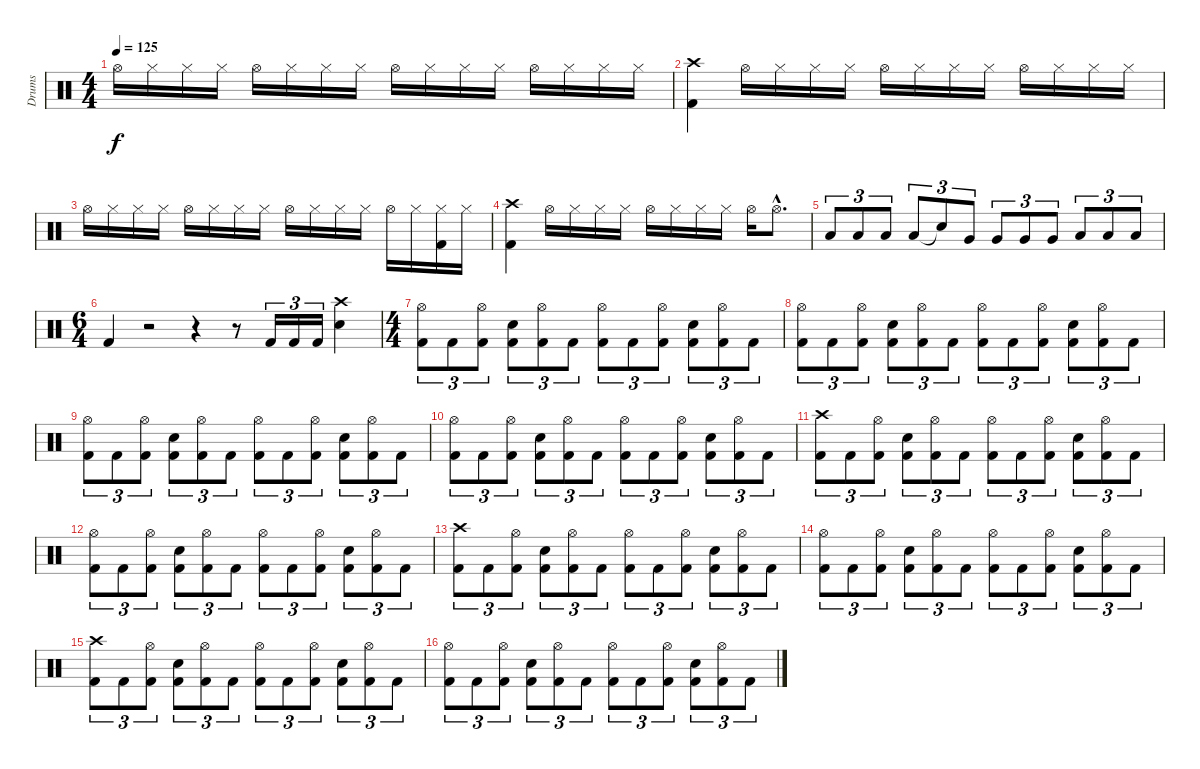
\track ("Drums" "Drums") {instrument percussion}
\staff {score}
\articulation defaults
\ts (4 4)
\tempo 125
\clef neutral
\ks c "Hi-Hat (open)".16{dy f} "Hi-Hat (closed)".16 "Hi-Hat (closed)".16 "Hi-Hat (closed)".16 "Hi-Hat (open)".16 "Hi-Hat (closed)".16 "Hi-Hat (closed)".16 "Hi-Hat (closed)".16 "Hi-Hat (open)".16 "Hi-Hat (closed)".16 "Hi-Hat (closed)".16 "Hi-Hat (closed)".16 "Hi-Hat (open)".16 "Hi-Hat (closed)".16 "Hi-Hat (closed)".16 "Hi-Hat (closed)".16
|
("Crash high (hit)" "Kick (hit) 2").4 "Hi-Hat (open)".16 "Hi-Hat (closed)".16 "Hi-Hat (closed)".16 "Hi-Hat (closed)".16 "Hi-Hat (open)".16 "Hi-Hat (closed)".16 "Hi-Hat (closed)".16 "Hi-Hat (closed)".16 "Hi-Hat (open)".16 "Hi-Hat (closed)".16 "Hi-Hat (closed)".16 "Hi-Hat (closed)".16 |
"Hi-Hat (open)".16 "Hi-Hat (closed)".16 "Hi-Hat (closed)".16 "Hi-Hat (closed)".16 "Hi-Hat (open)".16 "Hi-Hat (closed)".16 "Hi-Hat (closed)".16 "Hi-Hat (closed)".16 "Hi-Hat (open)".16 "Hi-Hat (closed)".16 "Hi-Hat (closed)".16 "Hi-Hat (closed)".16 "Hi-Hat (open)".16 "Hi-Hat (closed)".16 ("Hi-Hat (closed)" "Kick (hit) 2").16 "Hi-Hat (closed)".16 |
("Crash high (hit)" "Kick (hit) 2").4 "Hi-Hat (open)".16 "Hi-Hat (closed)".16 "Hi-Hat (closed)".16 "Hi-Hat (closed)".16 "Hi-Hat (open)".16 "Hi-Hat (closed)".16 "Hi-Hat (closed)".16 "Hi-Hat (closed)".16 "Hi-Hat (open)".16 "Hi-Hat (open)"{hac}.8{d} |
"Low Tom (hit)".8{tu (3 2)} "Low Tom (hit)".8{tu (3 2)} "Low Tom (hit)".8{tu (3 2)} "Low Tom (hit)".8{tu (3 2)} "Snare (hit)"{t}.8{tu (3 2)} "Very Low Tom (hit)".8{tu (3 2)} "Very Low Tom (hit)".8{tu (3 2)} "Very Low Tom (hit)".8{tu (3 2)} "Very Low Tom (hit)".8{tu (3 2)} "Low Floor Tom (hit)".8{tu (3 2)} "Low Floor Tom (hit)".8{tu (3 2)} "Low Floor Tom (hit)".8{tu (3 2)} |
\ts (6 4)
"Kick (hit) 2".4 r.2 r.4 r.8 "Kick (hit) 2".16{tu (3 2)} "Kick (hit) 2".16{tu (3 2)} "Kick (hit) 2".16{tu (3 2)} ("Crash high (hit)" "Snare (hit) 2").4 |
\ts (4 4)
("Hi-Hat (open)" "Kick (hit) 2").8{tu (3 2)} "Kick (hit) 2".8{tu (3 2)} ("Hi-Hat (open)" "Kick (hit) 2").8{tu (3 2)} ("Snare (hit) 2" "Kick (hit) 2").8{tu (3 2)} ("Hi-Hat (open)" "Kick (hit) 2").8{tu (3 2)} "Kick (hit) 2".8{tu (3 2)} ("Hi-Hat (open)" "Kick (hit) 2").8{tu (3 2)} "Kick (hit) 2".8{tu (3 2)} ("Hi-Hat (open)" "Kick (hit) 2").8{tu (3 2)} ("Snare (hit) 2" "Kick (hit) 2").8{tu (3 2)} ("Hi-Hat (open)" "Kick (hit) 2").8{tu (3 2)} "Kick (hit) 2".8{tu (3 2)} |
("Hi-Hat (open)" "Kick (hit) 2").8{tu (3 2)} "Kick (hit) 2".8{tu (3 2)} ("Hi-Hat (open)" "Kick (hit) 2").8{tu (3 2)} ("Snare (hit) 2" "Kick (hit) 2").8{tu (3 2)} ("Hi-Hat (open)" "Kick (hit) 2").8{tu (3 2)} "Kick (hit) 2".8{tu (3 2)} ("Hi-Hat (open)" "Kick (hit) 2").8{tu (3 2)} "Kick (hit) 2".8{tu (3 2)} ("Hi-Hat (open)" "Kick (hit) 2").8{tu (3 2)} ("Snare (hit) 2" "Kick (hit) 2").8{tu (3 2)} ("Hi-Hat (open)" "Kick (hit) 2").8{tu (3 2)} "Kick (hit) 2".8{tu (3 2)} |
("Hi-Hat (open)" "Kick (hit) 2").8{tu (3 2)} "Kick (hit) 2".8{tu (3 2)} ("Hi-Hat (open)" "Kick (hit) 2").8{tu (3 2)} ("Snare (hit) 2" "Kick (hit) 2").8{tu (3 2)} ("Hi-Hat (open)" "Kick (hit) 2").8{tu (3 2)} "Kick (hit) 2".8{tu (3 2)} ("Hi-Hat (open)" "Kick (hit) 2").8{tu (3 2)} "Kick (hit) 2".8{tu (3 2)} ("Hi-Hat (open)" "Kick (hit) 2").8{tu (3 2)} ("Snare (hit) 2" "Kick (hit) 2").8{tu (3 2)} ("Hi-Hat (open)" "Kick (hit) 2").8{tu (3 2)} "Kick (hit) 2".8{tu (3 2)} |
("Hi-Hat (open)" "Kick (hit) 2").8{tu (3 2)} "Kick (hit) 2".8{tu (3 2)} ("Hi-Hat (open)" "Kick (hit) 2").8{tu (3 2)} ("Snare (hit) 2" "Kick (hit) 2").8{tu (3 2)} ("Hi-Hat (open)" "Kick (hit) 2").8{tu (3 2)} "Kick (hit) 2".8{tu (3 2)} ("Hi-Hat (open)" "Kick (hit) 2").8{tu (3 2)} "Kick (hit) 2".8{tu (3 2)} ("Hi-Hat (open)" "Kick (hit) 2").8{tu (3 2)} ("Snare (hit) 2" "Kick (hit) 2").8{tu (3 2)} ("Hi-Hat (open)" "Kick (hit) 2").8{tu (3 2)} "Kick (hit) 2".8{tu (3 2)} |
("Crash high (hit)" "Kick (hit) 2").8{tu (3 2)} "Kick (hit) 2".8{tu (3 2)} ("Hi-Hat (open)" "Kick (hit) 2").8{tu (3 2)} ("Snare (hit) 2" "Kick (hit) 2").8{tu (3 2)} ("Hi-Hat (open)" "Kick (hit) 2").8{tu (3 2)} "Kick (hit) 2".8{tu (3 2)} ("Hi-Hat (open)" "Kick (hit) 2").8{tu (3 2)} "Kick (hit) 2".8{tu (3 2)} ("Hi-Hat (open)" "Kick (hit) 2").8{tu (3 2)} ("Snare (hit) 2" "Kick (hit) 2").8{tu (3 2)} ("Hi-Hat (open)" "Kick (hit) 2").8{tu (3 2)} "Kick (hit) 2".8{tu (3 2)} |
("Hi-Hat (open)" "Kick (hit) 2").8{tu (3 2)} "Kick (hit) 2".8{tu (3 2)} ("Hi-Hat (open)" "Kick (hit) 2").8{tu (3 2)} ("Snare (hit) 2" "Kick (hit) 2").8{tu (3 2)} ("Hi-Hat (open)" "Kick (hit) 2").8{tu (3 2)} "Kick (hit) 2".8{tu (3 2)} ("Hi-Hat (open)" "Kick (hit) 2").8{tu (3 2)} "Kick (hit) 2".8{tu (3 2)} ("Hi-Hat (open)" "Kick (hit) 2").8{tu (3 2)} ("Snare (hit) 2" "Kick (hit) 2").8{tu (3 2)} ("Hi-Hat (open)" "Kick (hit) 2").8{tu (3 2)} "Kick (hit) 2".8{tu (3 2)} |
("Crash high (hit)" "Kick (hit) 2").8{tu (3 2)} "Kick (hit) 2".8{tu (3 2)} ("Hi-Hat (open)" "Kick (hit) 2").8{tu (3 2)} ("Snare (hit) 2" "Kick (hit) 2").8{tu (3 2)} ("Hi-Hat (open)" "Kick (hit) 2").8{tu (3 2)} "Kick (hit) 2".8{tu (3 2)} ("Hi-Hat (open)" "Kick (hit) 2").8{tu (3 2)} "Kick (hit) 2".8{tu (3 2)} ("Hi-Hat (open)" "Kick (hit) 2").8{tu (3 2)} ("Snare (hit) 2" "Kick (hit) 2").8{tu (3 2)} ("Hi-Hat (open)" "Kick (hit) 2").8{tu (3 2)} "Kick (hit) 2".8{tu (3 2)} |
("Hi-Hat (open)" "Kick (hit) 2").8{tu (3 2)} "Kick (hit) 2".8{tu (3 2)} ("Hi-Hat (open)" "Kick (hit) 2").8{tu (3 2)} ("Snare (hit) 2" "Kick (hit) 2").8{tu (3 2)} ("Hi-Hat (open)" "Kick (hit) 2").8{tu (3 2)} "Kick (hit) 2".8{tu (3 2)} ("Hi-Hat (open)" "Kick (hit) 2").8{tu (3 2)} "Kick (hit) 2".8{tu (3 2)} ("Hi-Hat (open)" "Kick (hit) 2").8{tu (3 2)} ("Snare (hit) 2" "Kick (hit) 2").8{tu (3 2)} ("Hi-Hat (open)" "Kick (hit) 2").8{tu (3 2)} "Kick (hit) 2".8{tu (3 2)} |
("Crash high (hit)" "Kick (hit) 2").8{tu (3 2)} "Kick (hit) 2".8{tu (3 2)} ("Hi-Hat (open)" "Kick (hit) 2").8{tu (3 2)} ("Snare (hit) 2" "Kick (hit) 2").8{tu (3 2)} ("Hi-Hat (open)" "Kick (hit) 2").8{tu (3 2)} "Kick (hit) 2".8{tu (3 2)} ("Hi-Hat (open)" "Kick (hit) 2").8{tu (3 2)} "Kick (hit) 2".8{tu (3 2)} ("Hi-Hat (open)" "Kick (hit) 2").8{tu (3 2)} ("Snare (hit) 2" "Kick (hit) 2").8{tu (3 2)} ("Hi-Hat (open)" "Kick (hit) 2").8{tu (3 2)} "Kick (hit) 2".8{tu (3 2)} |
("Hi-Hat (open)" "Kick (hit) 2").8{tu (3 2)} "Kick (hit) 2".8{tu (3 2)} ("Hi-Hat (open)" "Kick (hit) 2").8{tu (3 2)} ("Snare (hit) 2" "Kick (hit) 2").8{tu (3 2)} ("Hi-Hat (open)" "Kick (hit) 2").8{tu (3 2)} "Kick (hit) 2".8{tu (3 2)} ("Hi-Hat (open)" "Kick (hit) 2").8{tu (3 2)} "Kick (hit) 2".8{tu (3 2)} ("Hi-Hat (open)" "Kick (hit) 2").8{tu (3 2)} ("Snare (hit) 2" "Kick (hit) 2").8{tu (3 2)} ("Hi-Hat (open)" "Kick (hit) 2").8{tu (3 2)} "Kick (hit) 2".8{tu (3 2)}
